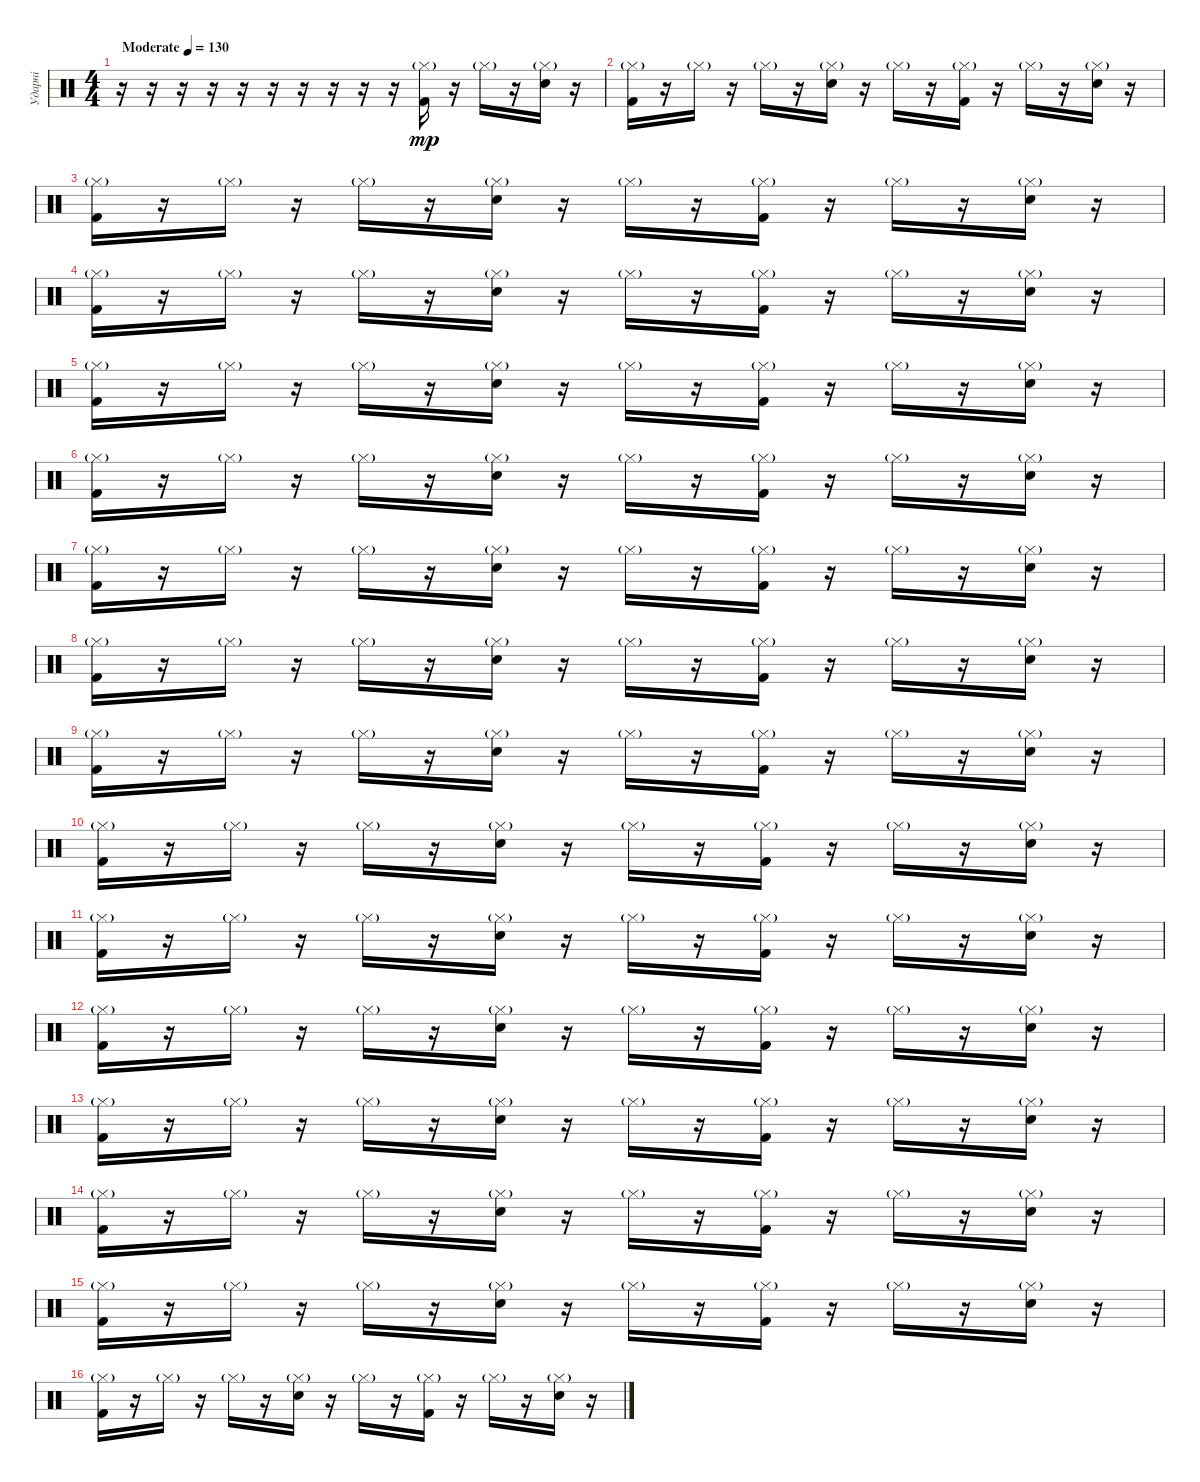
\track ("Ударні" "Ударні") {instrument percussion}
\staff {score}
\articulation defaults
\ts (4 4)
\tempo (130 "Moderate")
\clef neutral
\ks c
r.16{dy mp} r.16 r.16 r.16 r.16 r.16 r.16 r.16 r.16 r.16 ("Hi-Hat (closed)"{g} "Kick (hit) 2").16 r.16 "Hi-Hat (closed)"{g}.16 r.16 ("Hi-Hat (closed)"{g} "Snare (hit) 2").16 r.16 |
("Hi-Hat (closed)"{g} "Kick (hit) 2").16 r.16 "Hi-Hat (closed)"{g}.16 r.16 "Hi-Hat (closed)"{g}.16 r.16 ("Hi-Hat (closed)"{g} "Snare (hit) 2").16 r.16 "Hi-Hat (closed)"{g}.16 r.16 ("Hi-Hat (closed)"{g} "Kick (hit) 2").16 r.16 "Hi-Hat (closed)"{g}.16 r.16 ("Hi-Hat (closed)"{g} "Snare (hit) 2").16 r.16 |
("Hi-Hat (closed)"{g} "Kick (hit) 2").16 r.16 "Hi-Hat (closed)"{g}.16 r.16 "Hi-Hat (closed)"{g}.16 r.16 ("Hi-Hat (closed)"{g} "Snare (hit) 2").16 r.16 "Hi-Hat (closed)"{g}.16 r.16 ("Hi-Hat (closed)"{g} "Kick (hit) 2").16 r.16 "Hi-Hat (closed)"{g}.16 r.16 ("Hi-Hat (closed)"{g} "Snare (hit) 2").16 r.16 |
("Hi-Hat (closed)"{g} "Kick (hit) 2").16 r.16 "Hi-Hat (closed)"{g}.16 r.16 "Hi-Hat (closed)"{g}.16 r.16 ("Hi-Hat (closed)"{g} "Snare (hit) 2").16 r.16 "Hi-Hat (closed)"{g}.16 r.16 ("Hi-Hat (closed)"{g} "Kick (hit) 2").16 r.16 "Hi-Hat (closed)"{g}.16 r.16 ("Hi-Hat (closed)"{g} "Snare (hit) 2").16 r.16 |
("Hi-Hat (closed)"{g} "Kick (hit) 2").16 r.16 "Hi-Hat (closed)"{g}.16 r.16 "Hi-Hat (closed)"{g}.16 r.16 ("Hi-Hat (closed)"{g} "Snare (hit) 2").16 r.16 "Hi-Hat (closed)"{g}.16 r.16 ("Hi-Hat (closed)"{g} "Kick (hit) 2").16 r.16 "Hi-Hat (closed)"{g}.16 r.16 ("Hi-Hat (closed)"{g} "Snare (hit) 2").16 r.16 |
("Hi-Hat (closed)"{g} "Kick (hit) 2").16 r.16 "Hi-Hat (closed)"{g}.16 r.16 "Hi-Hat (closed)"{g}.16 r.16 ("Hi-Hat (closed)"{g} "Snare (hit) 2").16 r.16 "Hi-Hat (closed)"{g}.16 r.16 ("Hi-Hat (closed)"{g} "Kick (hit) 2").16 r.16 "Hi-Hat (closed)"{g}.16 r.16 ("Hi-Hat (closed)"{g} "Snare (hit) 2").16 r.16 |
("Hi-Hat (closed)"{g} "Kick (hit) 2").16 r.16 "Hi-Hat (closed)"{g}.16 r.16 "Hi-Hat (closed)"{g}.16 r.16 ("Hi-Hat (closed)"{g} "Snare (hit) 2").16 r.16 "Hi-Hat (closed)"{g}.16 r.16 ("Hi-Hat (closed)"{g} "Kick (hit) 2").16 r.16 "Hi-Hat (closed)"{g}.16 r.16 ("Hi-Hat (closed)"{g} "Snare (hit) 2").16 r.16 |
("Hi-Hat (closed)"{g} "Kick (hit) 2").16 r.16 "Hi-Hat (closed)"{g}.16 r.16 "Hi-Hat (closed)"{g}.16 r.16 ("Hi-Hat (closed)"{g} "Snare (hit) 2").16 r.16 "Hi-Hat (closed)"{g}.16 r.16 ("Hi-Hat (closed)"{g} "Kick (hit) 2").16 r.16 "Hi-Hat (closed)"{g}.16 r.16 ("Hi-Hat (closed)"{g} "Snare (hit) 2").16 r.16 |
("Hi-Hat (closed)"{g} "Kick (hit) 2").16 r.16 "Hi-Hat (closed)"{g}.16 r.16 "Hi-Hat (closed)"{g}.16 r.16 ("Hi-Hat (closed)"{g} "Snare (hit) 2").16 r.16 "Hi-Hat (closed)"{g}.16 r.16 ("Hi-Hat (closed)"{g} "Kick (hit) 2").16 r.16 "Hi-Hat (closed)"{g}.16 r.16 ("Hi-Hat (closed)"{g} "Snare (hit) 2").16 r.16 |
("Hi-Hat (closed)"{g} "Kick (hit) 2").16 r.16 "Hi-Hat (closed)"{g}.16 r.16 "Hi-Hat (closed)"{g}.16 r.16 ("Hi-Hat (closed)"{g} "Snare (hit) 2").16 r.16 "Hi-Hat (closed)"{g}.16 r.16 ("Hi-Hat (closed)"{g} "Kick (hit) 2").16 r.16 "Hi-Hat (closed)"{g}.16 r.16 ("Hi-Hat (closed)"{g} "Snare (hit) 2").16 r.16 |
("Hi-Hat (closed)"{g} "Kick (hit) 2").16 r.16 "Hi-Hat (closed)"{g}.16 r.16 "Hi-Hat (closed)"{g}.16 r.16 ("Hi-Hat (closed)"{g} "Snare (hit) 2").16 r.16 "Hi-Hat (closed)"{g}.16 r.16 ("Hi-Hat (closed)"{g} "Kick (hit) 2").16 r.16 "Hi-Hat (closed)"{g}.16 r.16 ("Hi-Hat (closed)"{g} "Snare (hit) 2").16 r.16 |
("Hi-Hat (closed)"{g} "Kick (hit) 2").16 r.16 "Hi-Hat (closed)"{g}.16 r.16 "Hi-Hat (closed)"{g}.16 r.16 ("Hi-Hat (closed)"{g} "Snare (hit) 2").16 r.16 "Hi-Hat (closed)"{g}.16 r.16 ("Hi-Hat (closed)"{g} "Kick (hit) 2").16 r.16 "Hi-Hat (closed)"{g}.16 r.16 ("Hi-Hat (closed)"{g} "Snare (hit) 2").16 r.16 |
("Hi-Hat (closed)"{g} "Kick (hit) 2").16 r.16 "Hi-Hat (closed)"{g}.16 r.16 "Hi-Hat (closed)"{g}.16 r.16 ("Hi-Hat (closed)"{g} "Snare (hit) 2").16 r.16 "Hi-Hat (closed)"{g}.16 r.16 ("Hi-Hat (closed)"{g} "Kick (hit) 2").16 r.16 "Hi-Hat (closed)"{g}.16 r.16 ("Hi-Hat (closed)"{g} "Snare (hit) 2").16 r.16 |
("Hi-Hat (closed)"{g} "Kick (hit) 2").16 r.16 "Hi-Hat (closed)"{g}.16 r.16 "Hi-Hat (closed)"{g}.16 r.16 ("Hi-Hat (closed)"{g} "Snare (hit) 2").16 r.16 "Hi-Hat (closed)"{g}.16 r.16 ("Hi-Hat (closed)"{g} "Kick (hit) 2").16 r.16 "Hi-Hat (closed)"{g}.16 r.16 ("Hi-Hat (closed)"{g} "Snare (hit) 2").16 r.16 |
("Hi-Hat (closed)"{g} "Kick (hit) 2").16 r.16 "Hi-Hat (closed)"{g}.16 r.16 "Hi-Hat (closed)"{g}.16 r.16 ("Hi-Hat (closed)"{g} "Snare (hit) 2").16 r.16 "Hi-Hat (closed)"{g}.16 r.16 ("Hi-Hat (closed)"{g} "Kick (hit) 2").16 r.16 "Hi-Hat (closed)"{g}.16 r.16 ("Hi-Hat (closed)"{g} "Snare (hit) 2").16 r.16 |
("Hi-Hat (closed)"{g} "Kick (hit) 2").16 r.16 "Hi-Hat (closed)"{g}.16 r.16 "Hi-Hat (closed)"{g}.16 r.16 ("Hi-Hat (closed)"{g} "Snare (hit) 2").16 r.16 "Hi-Hat (closed)"{g}.16 r.16 ("Hi-Hat (closed)"{g} "Kick (hit) 2").16 r.16 "Hi-Hat (closed)"{g}.16 r.16 ("Hi-Hat (closed)"{g} "Snare (hit) 2").16 r.16
